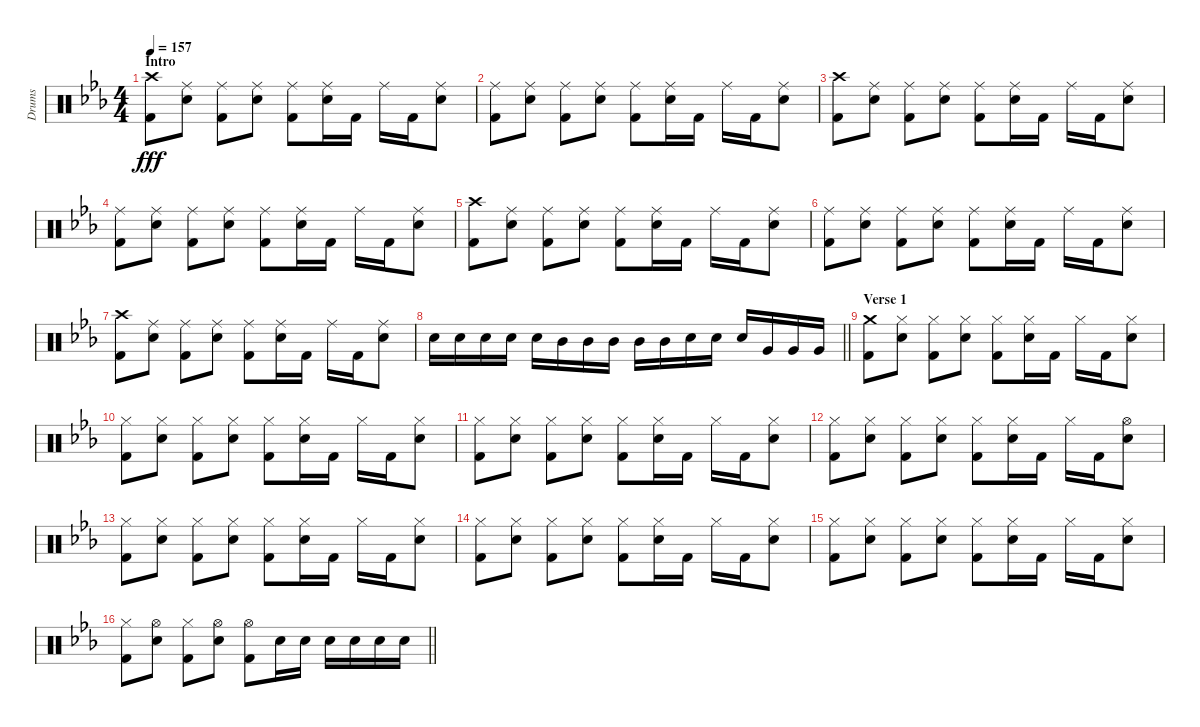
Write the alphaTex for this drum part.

\track ("Drums" "Drums") {instrument percussion}
\staff {score}
\articulation defaults
\ts (4 4)
\section ("" "Intro")
\tempo 157
\clef neutral
\ks eb
("Crash high (hit)" "Kick (hit) 2").8{dy fff} ("Ride (middle)" "Snare (hit) 2").8 ("Ride (middle)" "Kick (hit) 2").8 ("Ride (middle)" "Snare (hit) 2").8 ("Ride (middle)" "Kick (hit) 2").8 ("Ride (middle)" "Snare (hit) 2").16 "Kick (hit) 2".16 "Ride (middle)".16 "Kick (hit) 2".16 ("Ride (middle)" "Snare (hit) 2").8 |
("Ride (middle)" "Kick (hit) 2").8 ("Ride (middle)" "Snare (hit) 2").8 ("Ride (middle)" "Kick (hit) 2").8 ("Ride (middle)" "Snare (hit) 2").8 ("Ride (middle)" "Kick (hit) 2").8 ("Ride (middle)" "Snare (hit) 2").16 "Kick (hit) 2".16 "Ride (middle)".16 "Kick (hit) 2".16 ("Ride (middle)" "Snare (hit) 2").8 |
("Crash high (hit)" "Kick (hit) 2").8 ("Ride (middle)" "Snare (hit) 2").8 ("Ride (middle)" "Kick (hit) 2").8 ("Ride (middle)" "Snare (hit) 2").8 ("Ride (middle)" "Kick (hit) 2").8 ("Ride (middle)" "Snare (hit) 2").16 "Kick (hit) 2".16 "Ride (middle)".16 "Kick (hit) 2".16 ("Ride (middle)" "Snare (hit) 2").8 |
("Ride (middle)" "Kick (hit) 2").8 ("Ride (middle)" "Snare (hit) 2").8 ("Ride (middle)" "Kick (hit) 2").8 ("Ride (middle)" "Snare (hit) 2").8 ("Ride (middle)" "Kick (hit) 2").8 ("Ride (middle)" "Snare (hit) 2").16 "Kick (hit) 2".16 "Ride (middle)".16 "Kick (hit) 2".16 ("Ride (middle)" "Snare (hit) 2").8 |
("Crash high (hit)" "Kick (hit) 2").8 ("Ride (middle)" "Snare (hit) 2").8 ("Ride (middle)" "Kick (hit) 2").8 ("Ride (middle)" "Snare (hit) 2").8 ("Ride (middle)" "Kick (hit) 2").8 ("Ride (middle)" "Snare (hit) 2").16 "Kick (hit) 2".16 "Ride (middle)".16 "Kick (hit) 2".16 ("Ride (middle)" "Snare (hit) 2").8 |
("Ride (middle)" "Kick (hit) 2").8 ("Ride (middle)" "Snare (hit) 2").8 ("Ride (middle)" "Kick (hit) 2").8 ("Ride (middle)" "Snare (hit) 2").8 ("Ride (middle)" "Kick (hit) 2").8 ("Ride (middle)" "Snare (hit) 2").16 "Kick (hit) 2".16 "Ride (middle)".16 "Kick (hit) 2".16 ("Ride (middle)" "Snare (hit) 2").8 |
("Crash high (hit)" "Kick (hit) 2").8 ("Ride (middle)" "Snare (hit) 2").8 ("Ride (middle)" "Kick (hit) 2").8 ("Ride (middle)" "Snare (hit) 2").8 ("Ride (middle)" "Kick (hit) 2").8 ("Ride (middle)" "Snare (hit) 2").16 "Kick (hit) 2".16 "Ride (middle)".16 "Kick (hit) 2".16 ("Ride (middle)" "Snare (hit) 2").8 |
\barLineRight lightlight "Snare (hit) 2".16 "Snare (hit) 2".16 "Snare (hit) 2".16 "Snare (hit) 2".16 "Snare (hit) 2".16 "Mid Tom (hit)".16 "Mid Tom (hit)".16 "Mid Tom (hit)".16 "Mid Tom (hit)".16 "Mid Tom (hit)".16 "Snare (hit) 2".16 "Snare (hit) 2".16 "Snare (hit) 2".16 "Very Low Tom (hit)".16 "Very Low Tom (hit)".16 "Very Low Tom (hit)".16
|
\section ("" "Verse 1")
("Crash medium (hit)" "Kick (hit) 2").8 ("Hi-Hat (closed)" "Snare (hit) 2").8 ("Hi-Hat (closed)" "Kick (hit) 2").8 ("Hi-Hat (closed)" "Snare (hit) 2").8 ("Hi-Hat (closed)" "Kick (hit) 2").8 ("Hi-Hat (closed)" "Snare (hit) 2").16 "Kick (hit) 2".16 "Hi-Hat (closed)".16 "Kick (hit) 2".16 ("Hi-Hat (closed)" "Snare (hit) 2").8 |
("Hi-Hat (closed)" "Kick (hit) 2").8 ("Hi-Hat (closed)" "Snare (hit) 2").8 ("Hi-Hat (closed)" "Kick (hit) 2").8 ("Hi-Hat (closed)" "Snare (hit) 2").8 ("Hi-Hat (closed)" "Kick (hit) 2").8 ("Hi-Hat (closed)" "Snare (hit) 2").16 "Kick (hit) 2".16 "Hi-Hat (closed)".16 "Kick (hit) 2".16 ("Hi-Hat (closed)" "Snare (hit) 2").8 |
("Hi-Hat (closed)" "Kick (hit) 2").8 ("Hi-Hat (closed)" "Snare (hit) 2").8 ("Hi-Hat (closed)" "Kick (hit) 2").8 ("Hi-Hat (closed)" "Snare (hit) 2").8 ("Hi-Hat (closed)" "Kick (hit) 2").8 ("Hi-Hat (closed)" "Snare (hit) 2").16 "Kick (hit) 2".16 "Hi-Hat (closed)".16 "Kick (hit) 2".16 ("Hi-Hat (closed)" "Snare (hit) 2").8 |
("Hi-Hat (closed)" "Kick (hit) 2").8 ("Hi-Hat (closed)" "Snare (hit) 2").8 ("Hi-Hat (closed)" "Kick (hit) 2").8 ("Hi-Hat (closed)" "Snare (hit) 2").8 ("Hi-Hat (closed)" "Kick (hit) 2").8 ("Hi-Hat (closed)" "Snare (hit) 2").16 "Kick (hit) 2".16 "Hi-Hat (closed)".16 "Kick (hit) 2".16 ("Hi-Hat (open)" "Snare (hit) 2").8 |
("Hi-Hat (closed)" "Kick (hit) 2").8 ("Hi-Hat (closed)" "Snare (hit) 2").8 ("Hi-Hat (closed)" "Kick (hit) 2").8 ("Hi-Hat (closed)" "Snare (hit) 2").8 ("Hi-Hat (closed)" "Kick (hit) 2").8 ("Hi-Hat (closed)" "Snare (hit) 2").16 "Kick (hit) 2".16 "Hi-Hat (closed)".16 "Kick (hit) 2".16 ("Hi-Hat (closed)" "Snare (hit) 2").8 |
("Hi-Hat (closed)" "Kick (hit) 2").8 ("Hi-Hat (closed)" "Snare (hit) 2").8 ("Hi-Hat (closed)" "Kick (hit) 2").8 ("Hi-Hat (closed)" "Snare (hit) 2").8 ("Hi-Hat (closed)" "Kick (hit) 2").8 ("Hi-Hat (closed)" "Snare (hit) 2").16 "Kick (hit) 2".16 "Hi-Hat (closed)".16 "Kick (hit) 2".16 ("Hi-Hat (closed)" "Snare (hit) 2").8 |
("Hi-Hat (closed)" "Kick (hit) 2").8 ("Hi-Hat (closed)" "Snare (hit) 2").8 ("Hi-Hat (closed)" "Kick (hit) 2").8 ("Hi-Hat (closed)" "Snare (hit) 2").8 ("Hi-Hat (closed)" "Kick (hit) 2").8 ("Hi-Hat (closed)" "Snare (hit) 2").16 "Kick (hit) 2".16 "Hi-Hat (closed)".16 "Kick (hit) 2".16 ("Hi-Hat (closed)" "Snare (hit) 2").8 |
\barLineRight lightlight
("Hi-Hat (closed)" "Kick (hit) 2").8 ("Hi-Hat (open)" "Snare (hit) 2").8 ("Hi-Hat (closed)" "Kick (hit) 2").8 ("Hi-Hat (open)" "Snare (hit) 2").8 ("Hi-Hat (open)" "Kick (hit) 2").8 "Snare (hit) 2".16 "Snare (hit) 2".16 "Snare (hit) 2".16 "Snare (hit) 2".16 "Snare (hit) 2".16 "Snare (hit) 2".16
